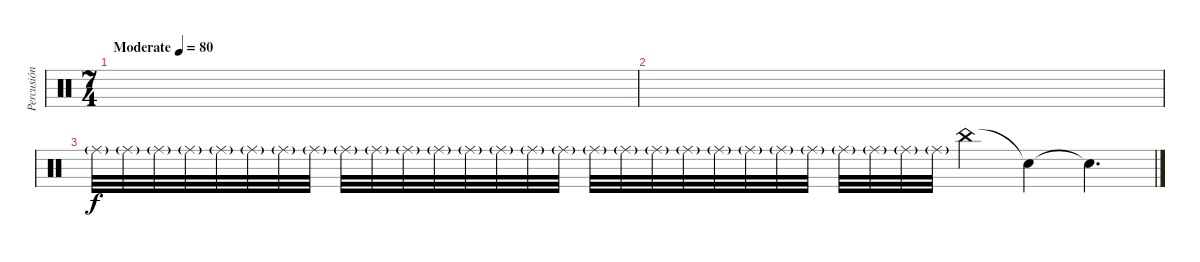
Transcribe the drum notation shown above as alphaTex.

\track ("Percusión" "Percusión") {instrument percussion}
\staff {score}
\articulation defaults
\ts (7 4)
\tempo (80 "Moderate")
\clef neutral
\ks c
|
|
"Ride (middle)"{g}.32 "Ride (middle)"{g}.32 "Ride (middle)"{g}.32 "Ride (middle)"{g}.32 "Ride (middle)"{g}.32 "Ride (middle)"{g}.32 "Ride (middle)"{g}.32 "Ride (middle)"{g}.32 "Ride (middle)"{g}.32 "Ride (middle)"{g}.32 "Ride (middle)"{g}.32 "Ride (middle)"{g}.32 "Ride (middle)"{g}.32 "Ride (middle)"{g}.32 "Ride (middle)"{g}.32 "Ride (middle)"{g}.32 "Ride (middle)"{g}.32 "Ride (middle)"{g}.32 "Ride (middle)"{g}.32 "Ride (middle)"{g}.32 "Ride (middle)"{g}.32 "Ride (middle)"{g}.32 "Ride (middle)"{g}.32 "Ride (middle)"{g}.32 "Ride (middle)"{g}.32 "Ride (middle)"{g}.32 "Ride (middle)"{g}.32 "Ride (middle)"{g}.32 "China (hit)".4{dy f} "Snare (hit)"{t}.4 "Snare (hit)"{t}.4{d}
